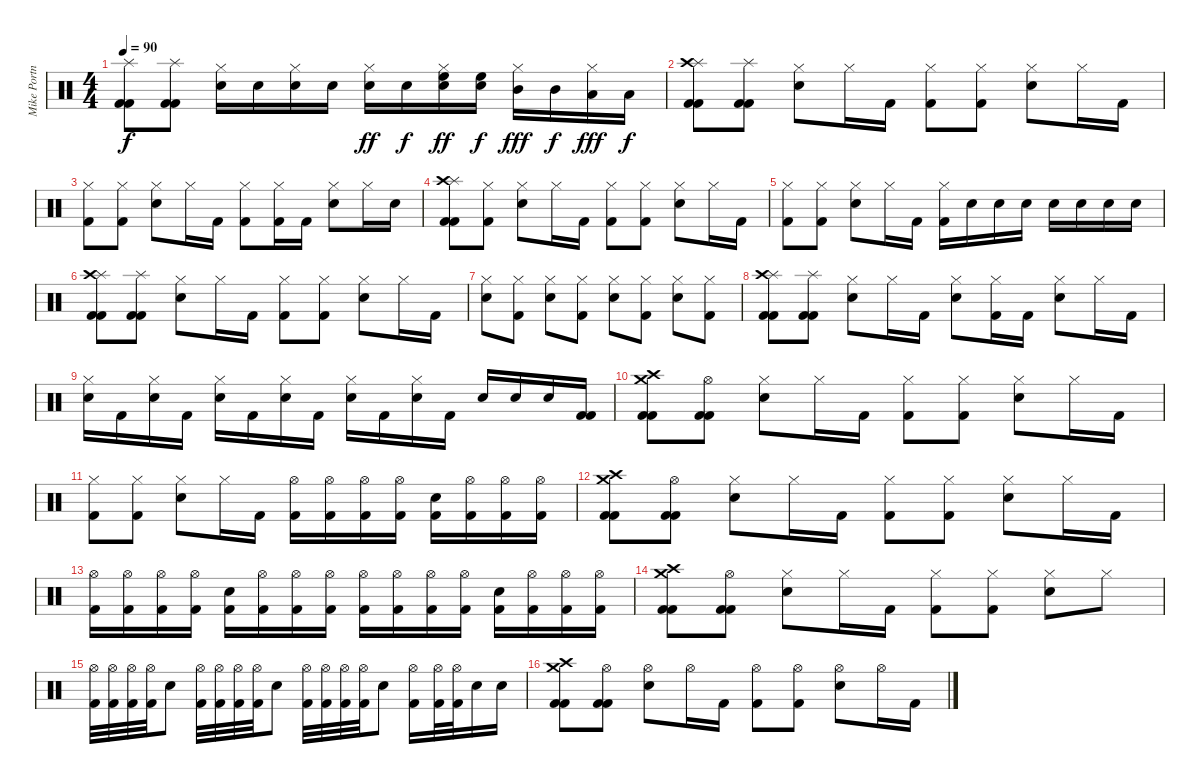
\track ("Mike Portnoy (Drums)" "Mike Portn") {instrument percussion}
\staff {score}
\articulation defaults
\ts (4 4)
\tempo 90
\clef neutral
\ks c
("Splash (hit)" "Kick (hit) 2" "Kick (hit) 2").8{dy f} ("Splash (hit)" "Kick (hit) 2" "Kick (hit) 2").8 ("Hi-Hat (closed)" "Electric Snare (hit)").16 "Electric Snare (hit)".16 ("Hi-Hat (closed)" "Electric Snare (hit)").16 "Electric Snare (hit)".16 ("Hi-Hat (closed)" "Electric Snare (hit)").16{dy ff} "Electric Snare (hit)".16{dy f} ("Hi-Hat (closed)" "Electric Snare (hit)" "High Floor Tom (hit)").16{dy ff} ("Electric Snare (hit)" "High Floor Tom (hit)").16{dy f} ("Hi-Hat (closed)" "Mid Tom (hit)").16{dy fff} "Mid Tom (hit)".16{dy f} ("Hi-Hat (closed)" "Low Tom (hit)").16{dy fff} "Low Tom (hit)".16{dy f} |
("Splash (hit)" "Crash high (hit)" "Kick (hit) 2" "Kick (hit) 2").8 ("Splash (hit)" "Kick (hit) 2" "Kick (hit) 2").8 ("Hi-Hat (closed)" "Electric Snare (hit)").8 "Hi-Hat (closed)".16 "Kick (hit) 2".16 ("Hi-Hat (closed)" "Kick (hit) 2").8 ("Hi-Hat (closed)" "Kick (hit) 2").8 ("Hi-Hat (closed)" "Electric Snare (hit)").8 "Hi-Hat (closed)".16 "Kick (hit) 2".16 |
("Hi-Hat (closed)" "Kick (hit) 2").8 ("Hi-Hat (closed)" "Kick (hit) 2").8 ("Hi-Hat (closed)" "Electric Snare (hit)").8 "Hi-Hat (closed)".16 "Kick (hit) 2".16 ("Hi-Hat (closed)" "Kick (hit) 2").8 ("Hi-Hat (closed)" "Kick (hit) 2").16 "Kick (hit) 2".16 ("Hi-Hat (closed)" "Electric Snare (hit)").8 "Hi-Hat (closed)".16 "Electric Snare (hit)".16 |
("Splash (hit)" "Crash high (hit)" "Kick (hit) 2" "Kick (hit) 2").8 ("Hi-Hat (closed)" "Kick (hit) 2").8 ("Hi-Hat (closed)" "Electric Snare (hit)").8 "Hi-Hat (closed)".16 "Kick (hit) 2".16 ("Hi-Hat (closed)" "Kick (hit) 2").8 ("Hi-Hat (closed)" "Kick (hit) 2").8 ("Hi-Hat (closed)" "Electric Snare (hit)").8 "Hi-Hat (closed)".16 "Kick (hit) 2".16 |
("Hi-Hat (closed)" "Kick (hit) 2").8 ("Hi-Hat (closed)" "Kick (hit) 2").8 ("Hi-Hat (closed)" "Electric Snare (hit)").8 "Hi-Hat (closed)".16 "Kick (hit) 2".16 ("Hi-Hat (closed)" "Kick (hit) 2").16 "Electric Snare (hit)".16 "Electric Snare (hit)".16 "Electric Snare (hit)".16 "Electric Snare (hit)".16 "Electric Snare (hit)".16 "Electric Snare (hit)".16 "Electric Snare (hit)".16 |
("Splash (hit)" "Crash high (hit)" "Kick (hit) 2" "Kick (hit) 2").8 ("Splash (hit)" "Kick (hit) 2" "Kick (hit) 2").8 ("Hi-Hat (closed)" "Electric Snare (hit)").8 "Hi-Hat (closed)".16 "Kick (hit) 2".16 ("Hi-Hat (closed)" "Kick (hit) 2").8 ("Hi-Hat (closed)" "Kick (hit) 2").8 ("Hi-Hat (closed)" "Electric Snare (hit)").8 "Hi-Hat (closed)".16 "Kick (hit) 2".16 |
("Hi-Hat (closed)" "Electric Snare (hit)").8 ("Hi-Hat (closed)" "Kick (hit) 2").8 ("Hi-Hat (closed)" "Electric Snare (hit)").8 ("Hi-Hat (closed)" "Kick (hit) 2").8 ("Hi-Hat (closed)" "Electric Snare (hit)").8 ("Hi-Hat (closed)" "Kick (hit) 2").8 ("Hi-Hat (closed)" "Electric Snare (hit)").8 ("Hi-Hat (closed)" "Kick (hit) 2").8 |
("Splash (hit)" "Crash high (hit)" "Kick (hit) 2" "Kick (hit) 2").8 ("Splash (hit)" "Kick (hit) 2" "Kick (hit) 2").8 ("Hi-Hat (closed)" "Electric Snare (hit)").8 "Hi-Hat (closed)".16 "Kick (hit) 2".16 ("Hi-Hat (closed)" "Electric Snare (hit)").8 ("Hi-Hat (closed)" "Kick (hit) 2").16 "Kick (hit) 2".16 ("Hi-Hat (closed)" "Electric Snare (hit)").8 "Hi-Hat (closed)".16 "Kick (hit) 2".16 |
("Hi-Hat (closed)" "Electric Snare (hit)").16 "Kick (hit) 2".16 ("Hi-Hat (closed)" "Electric Snare (hit)").16 "Kick (hit) 2".16 ("Hi-Hat (closed)" "Electric Snare (hit)").16 "Kick (hit) 2".16 ("Hi-Hat (closed)" "Electric Snare (hit)").16 "Kick (hit) 2".16 ("Hi-Hat (closed)" "Electric Snare (hit)").16 "Kick (hit) 2".16 ("Hi-Hat (closed)" "Electric Snare (hit)").16 "Kick (hit) 2".16 "Electric Snare (hit)".16 "Electric Snare (hit)".16 "Electric Snare (hit)".16 ("Kick (hit) 2" "Kick (hit) 2").16 |
("Crash medium (hit)" "Crash high (hit)" "Kick (hit) 2" "Kick (hit) 2").8 ("Hi-Hat (open)" "Kick (hit) 2" "Kick (hit) 2").8 ("Hi-Hat (closed)" "Electric Snare (hit)").8 "Hi-Hat (closed)".16 "Kick (hit) 2".16 ("Hi-Hat (closed)" "Kick (hit) 2").8 ("Hi-Hat (closed)" "Kick (hit) 2").8 ("Hi-Hat (closed)" "Electric Snare (hit)").8 "Hi-Hat (closed)".16 "Kick (hit) 2".16 |
("Hi-Hat (closed)" "Kick (hit) 2").8 ("Hi-Hat (closed)" "Kick (hit) 2").8 ("Hi-Hat (closed)" "Electric Snare (hit)").8 "Hi-Hat (closed)".16 "Kick (hit) 2".16 ("Hi-Hat (open)" "Kick (hit) 2").16 ("Hi-Hat (open)" "Kick (hit) 2").16 ("Hi-Hat (open)" "Kick (hit) 2").16 ("Hi-Hat (open)" "Kick (hit) 2").16 ("Electric Snare (hit)" "Kick (hit) 2").16 ("Hi-Hat (open)" "Kick (hit) 2").16 ("Hi-Hat (open)" "Kick (hit) 2").16 ("Hi-Hat (open)" "Kick (hit) 2").16 |
("Crash medium (hit)" "Crash high (hit)" "Kick (hit) 2" "Kick (hit) 2").8 ("Hi-Hat (open)" "Kick (hit) 2" "Kick (hit) 2").8 ("Hi-Hat (closed)" "Electric Snare (hit)").8 "Hi-Hat (closed)".16 "Kick (hit) 2".16 ("Hi-Hat (closed)" "Kick (hit) 2").8 ("Hi-Hat (closed)" "Kick (hit) 2").8 ("Hi-Hat (closed)" "Electric Snare (hit)").8 "Hi-Hat (closed)".16 "Kick (hit) 2".16 |
("Hi-Hat (open)" "Kick (hit) 2").16 ("Hi-Hat (open)" "Kick (hit) 2").16 ("Hi-Hat (open)" "Kick (hit) 2").16 ("Hi-Hat (open)" "Kick (hit) 2").16 ("Electric Snare (hit)" "Kick (hit) 2").16 ("Hi-Hat (open)" "Kick (hit) 2").16 ("Hi-Hat (open)" "Kick (hit) 2").16 ("Hi-Hat (open)" "Kick (hit) 2").16 ("Hi-Hat (open)" "Kick (hit) 2").16 ("Hi-Hat (open)" "Kick (hit) 2").16 ("Hi-Hat (open)" "Kick (hit) 2").16 ("Hi-Hat (open)" "Kick (hit) 2").16 ("Electric Snare (hit)" "Kick (hit) 2").16 ("Hi-Hat (open)" "Kick (hit) 2").16 ("Hi-Hat (open)" "Kick (hit) 2").16 ("Hi-Hat (open)" "Kick (hit) 2").16 |
("Crash medium (hit)" "Crash high (hit)" "Kick (hit) 2" "Kick (hit) 2").8 ("Hi-Hat (open)" "Kick (hit) 2" "Kick (hit) 2").8 ("Hi-Hat (closed)" "Electric Snare (hit)").8 "Hi-Hat (closed)".16 "Kick (hit) 2".16 ("Hi-Hat (closed)" "Kick (hit) 2").8 ("Hi-Hat (closed)" "Kick (hit) 2").8 ("Hi-Hat (closed)" "Electric Snare (hit)").8 "Hi-Hat (closed)".8 |
("Hi-Hat (open)" "Kick (hit) 2").32 ("Hi-Hat (open)" "Kick (hit) 2").32 ("Hi-Hat (open)" "Kick (hit) 2").32 ("Hi-Hat (open)" "Kick (hit) 2").32 "Electric Snare (hit)".8 ("Hi-Hat (open)" "Kick (hit) 2").32 ("Hi-Hat (open)" "Kick (hit) 2").32 ("Hi-Hat (open)" "Kick (hit) 2").32 ("Hi-Hat (open)" "Kick (hit) 2").32 "Electric Snare (hit)".8 ("Hi-Hat (open)" "Kick (hit) 2").32 ("Hi-Hat (open)" "Kick (hit) 2").32 ("Hi-Hat (open)" "Kick (hit) 2").32 ("Hi-Hat (open)" "Kick (hit) 2").32 "Electric Snare (hit)".8 ("Hi-Hat (open)" "Kick (hit) 2").16 ("Hi-Hat (open)" "Kick (hit) 2").32 ("Hi-Hat (open)" "Kick (hit) 2").32 "Electric Snare (hit)".16 "Electric Snare (hit)".16 |
("Crash medium (hit)" "Crash high (hit)" "Kick (hit) 2" "Kick (hit) 2").8 ("Hi-Hat (open)" "Kick (hit) 2" "Kick (hit) 2").8 ("Hi-Hat (open)" "Electric Snare (hit)").8 "Hi-Hat (open)".16 "Kick (hit) 2".16 ("Hi-Hat (open)" "Kick (hit) 2").8 ("Hi-Hat (open)" "Kick (hit) 2").8 ("Hi-Hat (open)" "Electric Snare (hit)").8 "Hi-Hat (open)".16 "Kick (hit) 2".16
